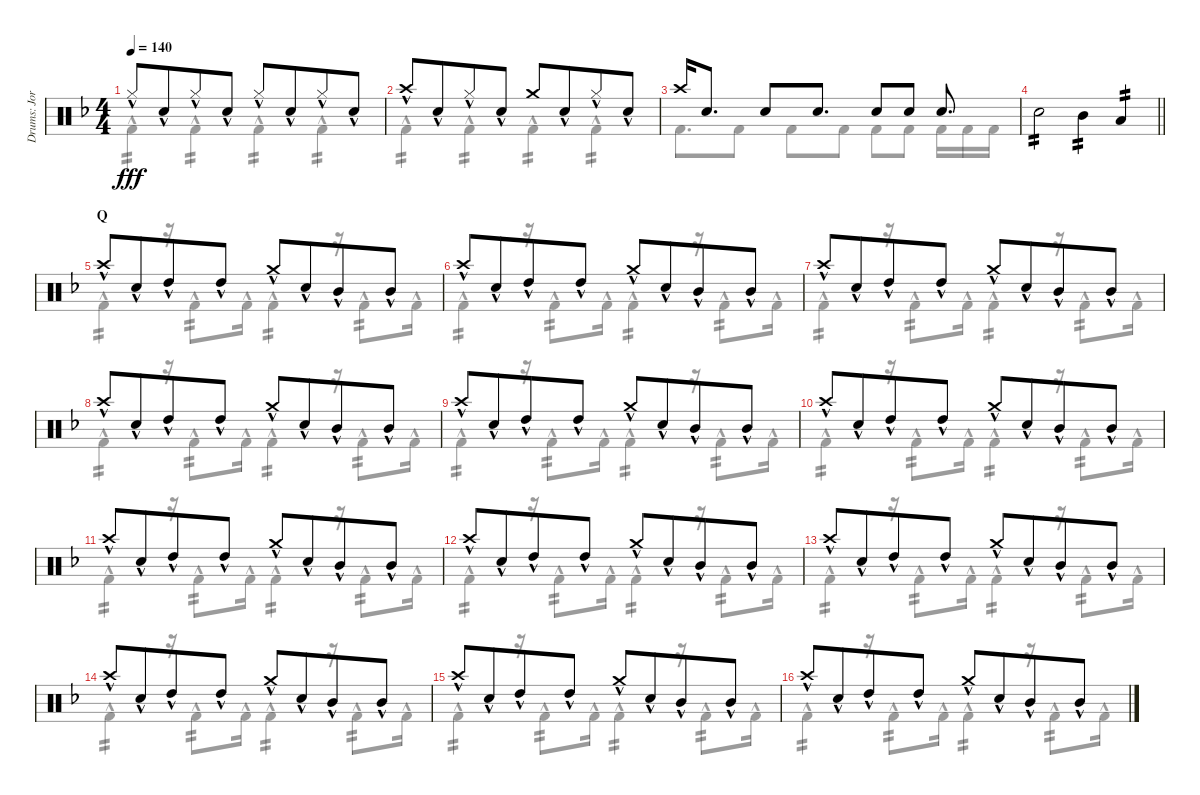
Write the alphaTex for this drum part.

\track ("Drums: Jorg" "Drums: Jor") {instrument percussion}
\staff {score}
\articulation defaults
\voice
\ts (4 4)
\tempo 140
\clef neutral
\ks f "Hi-Hat (closed)"{hac}.8{dy fff} "Snare (hit) 2"{hac}.8{beam merge} "Hi-Hat (closed)"{hac}.8 "Snare (hit) 2"{hac}.8 "Hi-Hat (closed)"{hac}.8 "Snare (hit) 2"{hac}.8{beam merge} "Hi-Hat (closed)"{hac}.8 "Snare (hit) 2"{hac}.8
|
"Crash high (hit)"{hac}.8 "Snare (hit) 2"{hac}.8{beam merge} "Hi-Hat (closed)"{hac}.8 "Snare (hit) 2"{hac}.8 "Crash medium (hit)".8 "Snare (hit) 2"{hac}.8{beam merge} "Hi-Hat (closed)"{hac}.8 "Snare (hit) 2"{hac}.8 |
"Crash high (hit)".16 "Snare (hit) 2".8{d} "Snare (hit) 2".8 "Snare (hit) 2".8{d} "Snare (hit) 2".8 "Snare (hit) 2".8 "Snare (hit) 2".8{d} |
\barLineRight lightlight "Snare (hit) 2".2{tp 2} "Mid Tom (hit)".4{tp 2} "Low Tom (hit)".4{tp 2}
|
\section ("" "Q")
"Crash high (hit)"{hac}.8 "Snare (hit) 2"{hac}.8{beam merge} "High Tom (hit)"{hac}.8 "High Tom (hit)"{hac}.8 "Crash medium (hit)"{hac}.8 "Snare (hit) 2"{hac}.8{beam merge} "Mid Tom (hit)"{hac}.8 "Mid Tom (hit)"{hac}.8 |
"Crash high (hit)"{hac}.8 "Snare (hit) 2"{hac}.8{beam merge} "High Tom (hit)"{hac}.8 "High Tom (hit)"{hac}.8 "Crash medium (hit)"{hac}.8 "Snare (hit) 2"{hac}.8{beam merge} "Mid Tom (hit)"{hac}.8 "Mid Tom (hit)"{hac}.8 |
"Crash high (hit)"{hac}.8 "Snare (hit) 2"{hac}.8{beam merge} "High Tom (hit)"{hac}.8 "High Tom (hit)"{hac}.8 "Crash medium (hit)"{hac}.8 "Snare (hit) 2"{hac}.8{beam merge} "Mid Tom (hit)"{hac}.8 "Mid Tom (hit)"{hac}.8 |
"Crash high (hit)"{hac}.8 "Snare (hit) 2"{hac}.8{beam merge} "High Tom (hit)"{hac}.8 "High Tom (hit)"{hac}.8 "Crash medium (hit)"{hac}.8 "Snare (hit) 2"{hac}.8{beam merge} "Mid Tom (hit)"{hac}.8 "Mid Tom (hit)"{hac}.8 |
"Crash high (hit)"{hac}.8 "Snare (hit) 2"{hac}.8{beam merge} "High Tom (hit)"{hac}.8 "High Tom (hit)"{hac}.8 "Crash medium (hit)"{hac}.8 "Snare (hit) 2"{hac}.8{beam merge} "Mid Tom (hit)"{hac}.8 "Mid Tom (hit)"{hac}.8 |
"Crash high (hit)"{hac}.8 "Snare (hit) 2"{hac}.8{beam merge} "High Tom (hit)"{hac}.8 "High Tom (hit)"{hac}.8 "Crash medium (hit)"{hac}.8 "Snare (hit) 2"{hac}.8{beam merge} "Mid Tom (hit)"{hac}.8 "Mid Tom (hit)"{hac}.8 |
"Crash high (hit)"{hac}.8 "Snare (hit) 2"{hac}.8{beam merge} "High Tom (hit)"{hac}.8 "High Tom (hit)"{hac}.8 "Crash medium (hit)"{hac}.8 "Snare (hit) 2"{hac}.8{beam merge} "Mid Tom (hit)"{hac}.8 "Mid Tom (hit)"{hac}.8 |
"Crash high (hit)"{hac}.8 "Snare (hit) 2"{hac}.8{beam merge} "High Tom (hit)"{hac}.8 "High Tom (hit)"{hac}.8 "Crash medium (hit)"{hac}.8 "Snare (hit) 2"{hac}.8{beam merge} "Mid Tom (hit)"{hac}.8 "Mid Tom (hit)"{hac}.8 |
"Crash high (hit)"{hac}.8 "Snare (hit) 2"{hac}.8{beam merge} "High Tom (hit)"{hac}.8 "High Tom (hit)"{hac}.8 "Crash medium (hit)"{hac}.8 "Snare (hit) 2"{hac}.8{beam merge} "Mid Tom (hit)"{hac}.8 "Mid Tom (hit)"{hac}.8 |
"Crash high (hit)"{hac}.8 "Snare (hit) 2"{hac}.8{beam merge} "High Tom (hit)"{hac}.8 "High Tom (hit)"{hac}.8 "Crash medium (hit)"{hac}.8 "Snare (hit) 2"{hac}.8{beam merge} "Mid Tom (hit)"{hac}.8 "Mid Tom (hit)"{hac}.8 |
"Crash high (hit)"{hac}.8 "Snare (hit) 2"{hac}.8{beam merge} "High Tom (hit)"{hac}.8 "High Tom (hit)"{hac}.8 "Crash medium (hit)"{hac}.8 "Snare (hit) 2"{hac}.8{beam merge} "Mid Tom (hit)"{hac}.8 "Mid Tom (hit)"{hac}.8 |
"Crash high (hit)"{hac}.8 "Snare (hit) 2"{hac}.8{beam merge} "High Tom (hit)"{hac}.8 "High Tom (hit)"{hac}.8 "Crash medium (hit)"{hac}.8 "Snare (hit) 2"{hac}.8{beam merge} "Mid Tom (hit)"{hac}.8 "Mid Tom (hit)"{hac}.8
\voice
\clef neutral
\ottava regular
\simile none
\ks f "Kick (hit) 2"{hac}.4{tp 2 dy fff beam merge} "Kick (hit) 2"{hac}.4{tp 2} "Kick (hit) 2"{hac}.4{tp 2} "Kick (hit) 2"{hac}.4{tp 2}
|
"Kick (hit) 2"{hac}.4{tp 2 beam merge} "Kick (hit) 2"{hac}.4{tp 2} "Kick (hit) 2"{hac}.4{tp 2} "Kick (hit) 2"{hac}.4{tp 2} |
"Kick (hit) 2".8{d} "Kick (hit) 2".8 "Kick (hit) 2".8 "Kick (hit) 2".8 "Kick (hit) 2".8 "Kick (hit) 2".8 "Kick (hit) 2".16 "Kick (hit) 2".16 "Kick (hit) 2".16 |
\barLineRight lightlight
|
"Kick (hit) 2"{hac}.4{tp 2} r.16 "Kick (hit) 2"{hac}.8{tp 2} "Kick (hit) 2"{hac}.16 "Kick (hit) 2"{hac}.4{tp 2} r.16 "Kick (hit) 2"{hac}.8{tp 2} "Kick (hit) 2"{hac}.16 |
"Kick (hit) 2"{hac}.4{tp 2} r.16 "Kick (hit) 2"{hac}.8{tp 2} "Kick (hit) 2"{hac}.16 "Kick (hit) 2"{hac}.4{tp 2} r.16 "Kick (hit) 2"{hac}.8{tp 2} "Kick (hit) 2"{hac}.16 |
"Kick (hit) 2"{hac}.4{tp 2} r.16 "Kick (hit) 2"{hac}.8{tp 2} "Kick (hit) 2"{hac}.16 "Kick (hit) 2"{hac}.4{tp 2} r.16 "Kick (hit) 2"{hac}.8{tp 2} "Kick (hit) 2"{hac}.16 |
"Kick (hit) 2"{hac}.4{tp 2} r.16 "Kick (hit) 2"{hac}.8{tp 2} "Kick (hit) 2"{hac}.16 "Kick (hit) 2"{hac}.4{tp 2} r.16 "Kick (hit) 2"{hac}.8{tp 2} "Kick (hit) 2"{hac}.16 |
"Kick (hit) 2"{hac}.4{tp 2} r.16 "Kick (hit) 2"{hac}.8{tp 2} "Kick (hit) 2"{hac}.16 "Kick (hit) 2"{hac}.4{tp 2} r.16 "Kick (hit) 2"{hac}.8{tp 2} "Kick (hit) 2"{hac}.16 |
"Kick (hit) 2"{hac}.4{tp 2} r.16 "Kick (hit) 2"{hac}.8{tp 2} "Kick (hit) 2"{hac}.16 "Kick (hit) 2"{hac}.4{tp 2} r.16 "Kick (hit) 2"{hac}.8{tp 2} "Kick (hit) 2"{hac}.16 |
"Kick (hit) 2"{hac}.4{tp 2} r.16 "Kick (hit) 2"{hac}.8{tp 2} "Kick (hit) 2"{hac}.16 "Kick (hit) 2"{hac}.4{tp 2} r.16 "Kick (hit) 2"{hac}.8{tp 2} "Kick (hit) 2"{hac}.16 |
"Kick (hit) 2"{hac}.4{tp 2} r.16 "Kick (hit) 2"{hac}.8{tp 2} "Kick (hit) 2"{hac}.16 "Kick (hit) 2"{hac}.4{tp 2} r.16 "Kick (hit) 2"{hac}.8{tp 2} "Kick (hit) 2"{hac}.16 |
"Kick (hit) 2"{hac}.4{tp 2} r.16 "Kick (hit) 2"{hac}.8{tp 2} "Kick (hit) 2"{hac}.16 "Kick (hit) 2"{hac}.4{tp 2} r.16 "Kick (hit) 2"{hac}.8{tp 2} "Kick (hit) 2"{hac}.16 |
"Kick (hit) 2"{hac}.4{tp 2} r.16 "Kick (hit) 2"{hac}.8{tp 2} "Kick (hit) 2"{hac}.16 "Kick (hit) 2"{hac}.4{tp 2} r.16 "Kick (hit) 2"{hac}.8{tp 2} "Kick (hit) 2"{hac}.16 |
"Kick (hit) 2"{hac}.4{tp 2} r.16 "Kick (hit) 2"{hac}.8{tp 2} "Kick (hit) 2"{hac}.16 "Kick (hit) 2"{hac}.4{tp 2} r.16 "Kick (hit) 2"{hac}.8{tp 2} "Kick (hit) 2"{hac}.16 |
"Kick (hit) 2"{hac}.4{tp 2} r.16 "Kick (hit) 2"{hac}.8{tp 2} "Kick (hit) 2"{hac}.16 "Kick (hit) 2"{hac}.4{tp 2} r.16 "Kick (hit) 2"{hac}.8{tp 2} "Kick (hit) 2"{hac}.16
